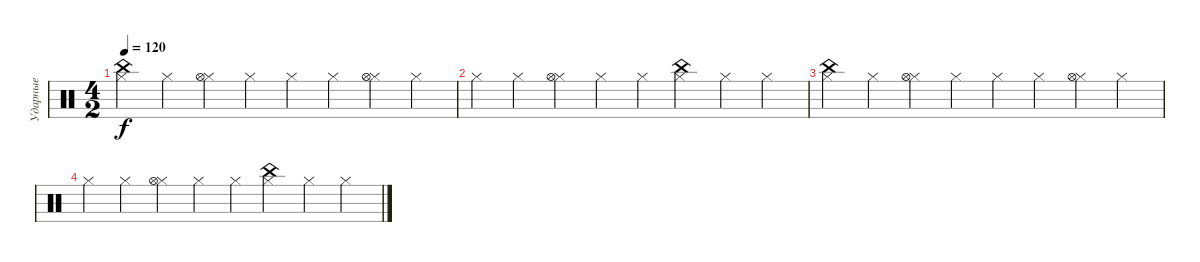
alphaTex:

\track ("Ударные" "Ударные") {instrument percussion}
\staff {score}
\articulation defaults
\ts (4 2)
\tempo 120
\clef neutral
\ks c
("Hi-Hat (closed)" "China (hit)").4{dy f} "Hi-Hat (closed)".4 ("Hi-Hat (closed)" "Hi-Hat (open)").4 "Hi-Hat (closed)".4 "Hi-Hat (closed)".4 "Hi-Hat (closed)".4 ("Hi-Hat (closed)" "Hi-Hat (open)").4 "Hi-Hat (closed)".4 |
"Hi-Hat (closed)".4 "Hi-Hat (closed)".4 ("Hi-Hat (closed)" "Hi-Hat (open)").4 "Hi-Hat (closed)".4 "Hi-Hat (closed)".4 ("Hi-Hat (closed)" "China (hit)").4 "Hi-Hat (closed)".4 "Hi-Hat (closed)".4 |
("Hi-Hat (closed)" "China (hit)").4 "Hi-Hat (closed)".4 ("Hi-Hat (closed)" "Hi-Hat (open)").4 "Hi-Hat (closed)".4 "Hi-Hat (closed)".4 "Hi-Hat (closed)".4 ("Hi-Hat (closed)" "Hi-Hat (open)").4 "Hi-Hat (closed)".4 |
"Hi-Hat (closed)".4 "Hi-Hat (closed)".4 ("Hi-Hat (closed)" "Hi-Hat (open)").4 "Hi-Hat (closed)".4 "Hi-Hat (closed)".4 ("Hi-Hat (closed)" "China (hit)").4 "Hi-Hat (closed)".4 "Hi-Hat (closed)".4
